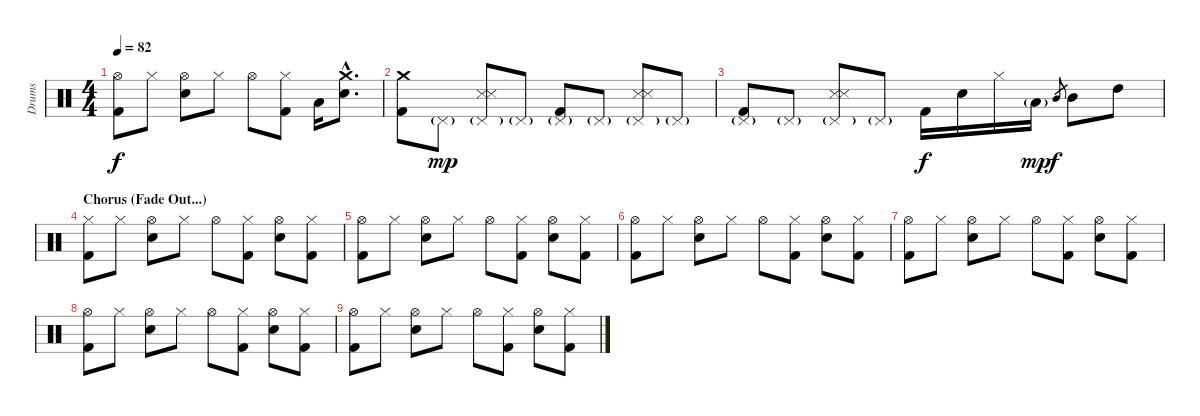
\track ("Drums" "Drums") {instrument percussion}
\staff {score}
\articulation defaults
\ts (4 4)
\tempo 82
\clef neutral
\ks c
("Hi-Hat (open)" "Kick (hit) 2").8{dy f} "Hi-Hat (closed)".8 ("Hi-Hat (open)" "Snare (hit) 2").8 "Hi-Hat (closed)".8 "Hi-Hat (open)".8 ("Hi-Hat (closed)" "Kick (hit) 2").8 "Low Tom (hit)".16 ("Crash medium (hit)"{hac} "Snare (hit) 2"{hac}).8{d} |
\section ("" "")
("Crash medium (hit)" "Kick (hit) 2").8 "Pedal Hi-Hat (hit)"{g}.8{dy mp} ("Snare (side stick) 3" "Pedal Hi-Hat (hit)"{g} "Snare (side stick) 3").8 "Pedal Hi-Hat (hit)"{g}.8 ("Pedal Hi-Hat (hit)"{g} "Kick (hit) 2").8 "Pedal Hi-Hat (hit)"{g}.8 ("Snare (side stick) 3" "Pedal Hi-Hat (hit)"{g} "Snare (side stick) 3").8 "Pedal Hi-Hat (hit)"{g}.8 |
("Kick (hit) 2" "Pedal Hi-Hat (hit)"{g}).8 "Pedal Hi-Hat (hit)"{g}.8 ("Snare (side stick) 3" "Snare (side stick) 3" "Pedal Hi-Hat (hit)"{g}).8 "Pedal Hi-Hat (hit)"{g}.8 "Kick (hit) 2".16{dy f} "Snare (hit) 2".16 "Hi-Hat (closed)".16 "Low Tom (hit)"{g}.16{dy mp} "Mid Tom (hit)".8{gr dy f} "Mid Tom (hit)".8 "High Tom (hit)".8 |
\section ("" "Chorus (Fade Out...)")
("Hi-Hat (closed)" "Kick (hit) 2").8 "Hi-Hat (closed)".8 ("Hi-Hat (open)" "Snare (hit) 2").8 "Hi-Hat (closed)".8 "Hi-Hat (open)".8 ("Hi-Hat (closed)" "Kick (hit) 2").8 ("Hi-Hat (open)" "Snare (hit) 2").8 ("Hi-Hat (closed)" "Kick (hit) 2").8 |
("Hi-Hat (open)" "Kick (hit) 2").8{volume 5} "Hi-Hat (closed)".8 ("Hi-Hat (open)" "Snare (hit) 2").8 "Hi-Hat (closed)".8 "Hi-Hat (open)".8 ("Hi-Hat (closed)" "Kick (hit) 2").8 ("Hi-Hat (open)" "Snare (hit) 2").8 ("Hi-Hat (closed)" "Kick (hit) 2").8 |
("Hi-Hat (open)" "Kick (hit) 2").8 "Hi-Hat (closed)".8 ("Hi-Hat (open)" "Snare (hit) 2").8 "Hi-Hat (closed)".8 "Hi-Hat (open)".8 ("Hi-Hat (closed)" "Kick (hit) 2").8 ("Hi-Hat (open)" "Snare (hit) 2").8 ("Hi-Hat (closed)" "Kick (hit) 2").8 |
("Hi-Hat (open)" "Kick (hit) 2").8{volume 0} "Hi-Hat (closed)".8 ("Hi-Hat (open)" "Snare (hit) 2").8 "Hi-Hat (closed)".8 "Hi-Hat (open)".8 ("Hi-Hat (closed)" "Kick (hit) 2").8 ("Hi-Hat (open)" "Snare (hit) 2").8 ("Hi-Hat (closed)" "Kick (hit) 2").8 |
("Hi-Hat (open)" "Kick (hit) 2").8 "Hi-Hat (closed)".8 ("Hi-Hat (open)" "Snare (hit) 2").8 "Hi-Hat (closed)".8 "Hi-Hat (open)".8 ("Hi-Hat (closed)" "Kick (hit) 2").8 ("Hi-Hat (open)" "Snare (hit) 2").8 ("Hi-Hat (closed)" "Kick (hit) 2").8 |
("Hi-Hat (open)" "Kick (hit) 2").8{volume 0} "Hi-Hat (closed)".8 ("Hi-Hat (open)" "Snare (hit) 2").8 "Hi-Hat (closed)".8 "Hi-Hat (open)".8 ("Hi-Hat (closed)" "Kick (hit) 2").8 ("Hi-Hat (open)" "Snare (hit) 2").8 ("Hi-Hat (closed)" "Kick (hit) 2").8
